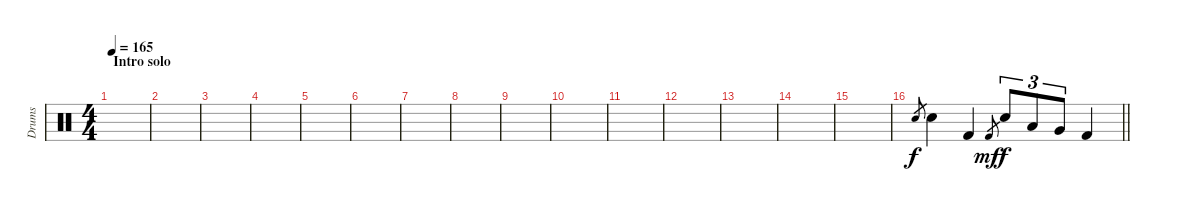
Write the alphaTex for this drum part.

\track ("Drums" "Drums") {instrument percussion}
\staff {score}
\articulation defaults
\ts (4 4)
\section ("" "Intro solo")
\tempo 165
\clef neutral
\ks c
|
|
|
|
|
|
|
|
|
|
|
|
|
|
|
\barLineRight lightlight "Snare (hit) 2".8{gr} "Snare (hit) 2".4 "Kick (hit) 2".4 "Kick (hit) 2".8{gr dy mf} "Snare (hit) 2".8{tu (3 2) dy f} "Low Tom (hit)".8{tu (3 2)} "Very Low Tom (hit)".8{tu (3 2)} "Kick (hit) 2".4
